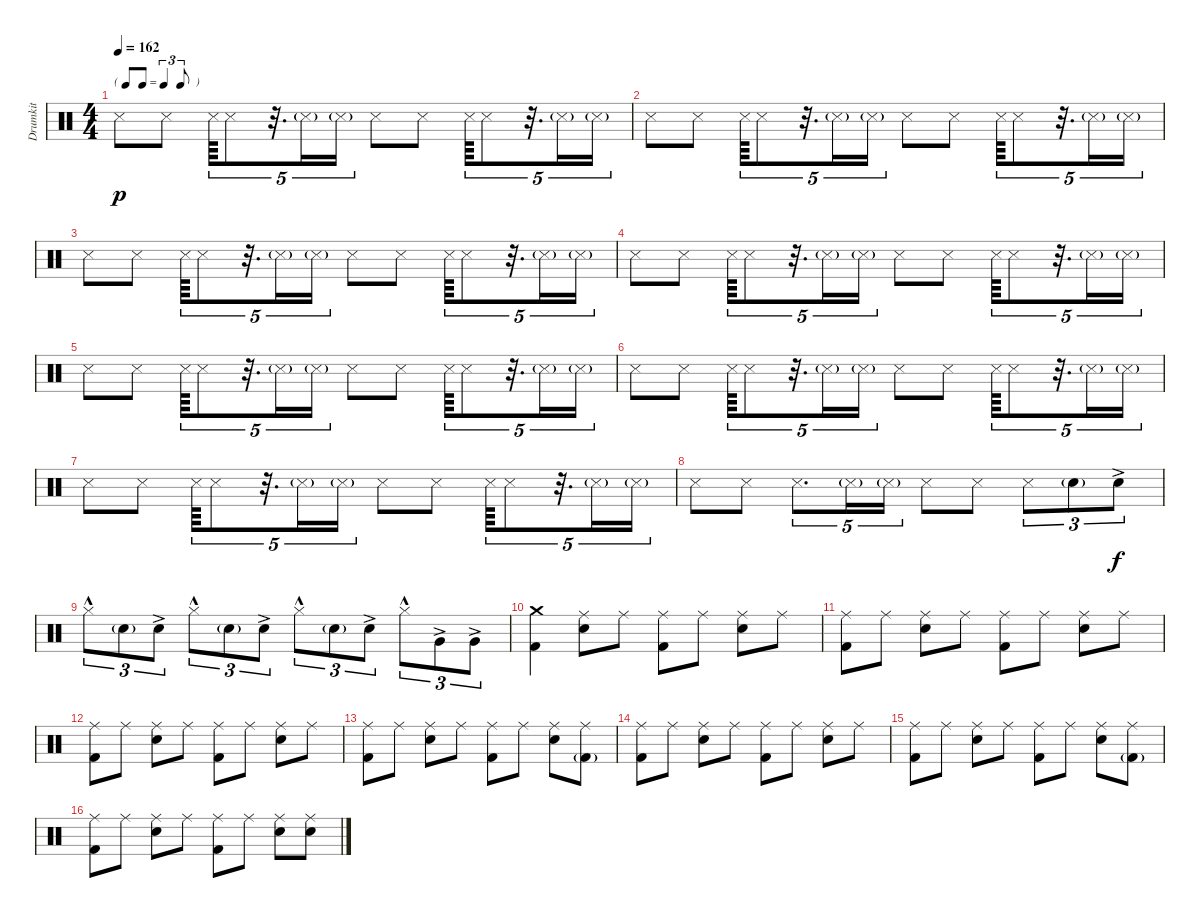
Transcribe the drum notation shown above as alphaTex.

\track ("Drumkit" "Drumkit") {instrument percussion}
\staff {score}
\articulation defaults
\ts (4 4)
\tf triplet8th
\tempo 162
\clef neutral
\ks c "Snare (side stick) 3".8{dy p} "Snare (side stick) 3".8 "Snare (side stick) 3".64{tu (5 4)} "Snare (side stick) 3".8{tu (5 4)}
r.32{d tu (5 4)} "Snare (side stick) 3"{g}.16{tu (5 4)} "Snare (side stick) 3"{g}.16{tu (5 4)} "Snare (side stick) 3".8 "Snare (side stick) 3".8 "Snare (side stick) 3".64{tu (5 4)} "Snare (side stick) 3".8{tu (5 4)} r.32{d tu (5 4)} "Snare (side stick) 3"{g}.16{tu (5 4)} "Snare (side stick) 3"{g}.16{tu (5 4)} |
"Snare (side stick) 3".8 "Snare (side stick) 3".8 "Snare (side stick) 3".64{tu (5 4)} "Snare (side stick) 3".8{tu (5 4)} r.32{d tu (5 4)} "Snare (side stick) 3"{g}.16{tu (5 4)} "Snare (side stick) 3"{g}.16{tu (5 4)} "Snare (side stick) 3".8 "Snare (side stick) 3".8 "Snare (side stick) 3".64{tu (5 4)} "Snare (side stick) 3".8{tu (5 4)} r.32{d tu (5 4)} "Snare (side stick) 3"{g}.16{tu (5 4)} "Snare (side stick) 3"{g}.16{tu (5 4)} |
"Snare (side stick) 3".8 "Snare (side stick) 3".8 "Snare (side stick) 3".64{tu (5 4)} "Snare (side stick) 3".8{tu (5 4)} r.32{d tu (5 4)} "Snare (side stick) 3"{g}.16{tu (5 4)} "Snare (side stick) 3"{g}.16{tu (5 4)} "Snare (side stick) 3".8 "Snare (side stick) 3".8 "Snare (side stick) 3".64{tu (5 4)} "Snare (side stick) 3".8{tu (5 4)} r.32{d tu (5 4)} "Snare (side stick) 3"{g}.16{tu (5 4)} "Snare (side stick) 3"{g}.16{tu (5 4)} |
"Snare (side stick) 3".8 "Snare (side stick) 3".8 "Snare (side stick) 3".64{tu (5 4)} "Snare (side stick) 3".8{tu (5 4)} r.32{d tu (5 4)} "Snare (side stick) 3"{g}.16{tu (5 4)} "Snare (side stick) 3"{g}.16{tu (5 4)} "Snare (side stick) 3".8 "Snare (side stick) 3".8 "Snare (side stick) 3".64{tu (5 4)} "Snare (side stick) 3".8{tu (5 4)} r.32{d tu (5 4)} "Snare (side stick) 3"{g}.16{tu (5 4)} "Snare (side stick) 3"{g}.16{tu (5 4)} |
"Snare (side stick) 3".8 "Snare (side stick) 3".8 "Snare (side stick) 3".64{tu (5 4)} "Snare (side stick) 3".8{tu (5 4)} r.32{d tu (5 4)} "Snare (side stick) 3"{g}.16{tu (5 4)} "Snare (side stick) 3"{g}.16{tu (5 4)} "Snare (side stick) 3".8 "Snare (side stick) 3".8 "Snare (side stick) 3".64{tu (5 4)} "Snare (side stick) 3".8{tu (5 4)} r.32{d tu (5 4)} "Snare (side stick) 3"{g}.16{tu (5 4)} "Snare (side stick) 3"{g}.16{tu (5 4)} |
"Snare (side stick) 3".8 "Snare (side stick) 3".8 "Snare (side stick) 3".64{tu (5 4)} "Snare (side stick) 3".8{tu (5 4)} r.32{d tu (5 4)} "Snare (side stick) 3"{g}.16{tu (5 4)} "Snare (side stick) 3"{g}.16{tu (5 4)} "Snare (side stick) 3".8 "Snare (side stick) 3".8 "Snare (side stick) 3".64{tu (5 4)} "Snare (side stick) 3".8{tu (5 4)} r.32{d tu (5 4)} "Snare (side stick) 3"{g}.16{tu (5 4)} "Snare (side stick) 3"{g}.16{tu (5 4)} |
"Snare (side stick) 3".8 "Snare (side stick) 3".8 "Snare (side stick) 3".64{tu (5 4)} "Snare (side stick) 3".8{tu (5 4)} r.32{d tu (5 4)} "Snare (side stick) 3"{g}.16{tu (5 4)} "Snare (side stick) 3"{g}.16{tu (5 4)} "Snare (side stick) 3".8 "Snare (side stick) 3".8 "Snare (side stick) 3".64{tu (5 4)} "Snare (side stick) 3".8{tu (5 4)} r.32{d tu (5 4)} "Snare (side stick) 3"{g}.16{tu (5 4)} "Snare (side stick) 3"{g}.16{tu (5 4)} |
"Snare (side stick) 3".8 "Snare (side stick) 3".8 "Snare (side stick) 3".8{d tu (5 4)} "Snare (side stick) 3"{g}.16{tu (5 4)} "Snare (side stick) 3"{g}.16{tu (5 4)} "Snare (side stick) 3".8 "Snare (side stick) 3".8 "Snare (side stick) 3".8{tu (3 2)} "Snare (hit) 2"{g}.8{tu (3 2)} "Snare (hit) 2"{ac}.8{tu (3 2) dy f} |
"Hi-Hat (closed)"{hac}.8{tu (3 2)} "Snare (hit) 2"{g}.8{tu (3 2)} "Snare (hit) 2"{ac}.8{tu (3 2)} "Hi-Hat (closed)"{hac}.8{tu (3 2)} "Snare (hit) 2"{g}.8{tu (3 2)} "Snare (hit) 2"{ac}.8{tu (3 2)} "Hi-Hat (closed)"{hac}.8{tu (3 2)} "Snare (hit) 2"{g}.8{tu (3 2)} "Snare (hit) 2"{ac}.8{tu (3 2)} "Hi-Hat (closed)"{hac}.8{tu (3 2)} "Very Low Tom (hit)"{ac}.8{tu (3 2)} "Very Low Tom (hit)"{ac}.8{tu (3 2)} |
("Kick (hit) 2" "Crash medium (hit)").4 ("Snare (hit) 2" "Ride (middle)").8 "Ride (middle)".8 ("Kick (hit) 2" "Ride (middle)").8 "Ride (middle)".8 ("Snare (hit) 2" "Ride (middle)").8 "Ride (middle)".8 |
("Kick (hit) 2" "Ride (middle)").8 "Ride (middle)".8 ("Snare (hit) 2" "Ride (middle)").8 "Ride (middle)".8 ("Kick (hit) 2" "Ride (middle)").8 "Ride (middle)".8 ("Snare (hit) 2" "Ride (middle)").8 "Ride (middle)".8 |
("Kick (hit) 2" "Ride (middle)").8 "Ride (middle)".8 ("Snare (hit) 2" "Ride (middle)").8 "Ride (middle)".8 ("Kick (hit) 2" "Ride (middle)").8 "Ride (middle)".8 ("Snare (hit) 2" "Ride (middle)").8 "Ride (middle)".8 |
("Kick (hit) 2" "Ride (middle)").8 "Ride (middle)".8 ("Snare (hit) 2" "Ride (middle)").8 "Ride (middle)".8 ("Kick (hit) 2" "Ride (middle)").8 "Ride (middle)".8 ("Snare (hit) 2" "Ride (middle)").8 ("Ride (middle)" "Kick (hit) 2"{g}).8 |
("Kick (hit) 2" "Ride (middle)").8 "Ride (middle)".8 ("Snare (hit) 2" "Ride (middle)").8 "Ride (middle)".8 ("Kick (hit) 2" "Ride (middle)").8 "Ride (middle)".8 ("Snare (hit) 2" "Ride (middle)").8 "Ride (middle)".8 |
("Kick (hit) 2" "Ride (middle)").8 "Ride (middle)".8 ("Snare (hit) 2" "Ride (middle)").8 "Ride (middle)".8 ("Kick (hit) 2" "Ride (middle)").8 "Ride (middle)".8 ("Snare (hit) 2" "Ride (middle)").8 ("Ride (middle)" "Kick (hit) 2"{g}).8 |
("Kick (hit) 2" "Ride (middle)").8 "Ride (middle)".8 ("Snare (hit) 2" "Ride (middle)").8 "Ride (middle)".8 ("Kick (hit) 2" "Ride (middle)").8 "Ride (middle)".8 ("Snare (hit) 2" "Ride (middle)").8 ("Ride (middle)" "Snare (hit) 2").8
